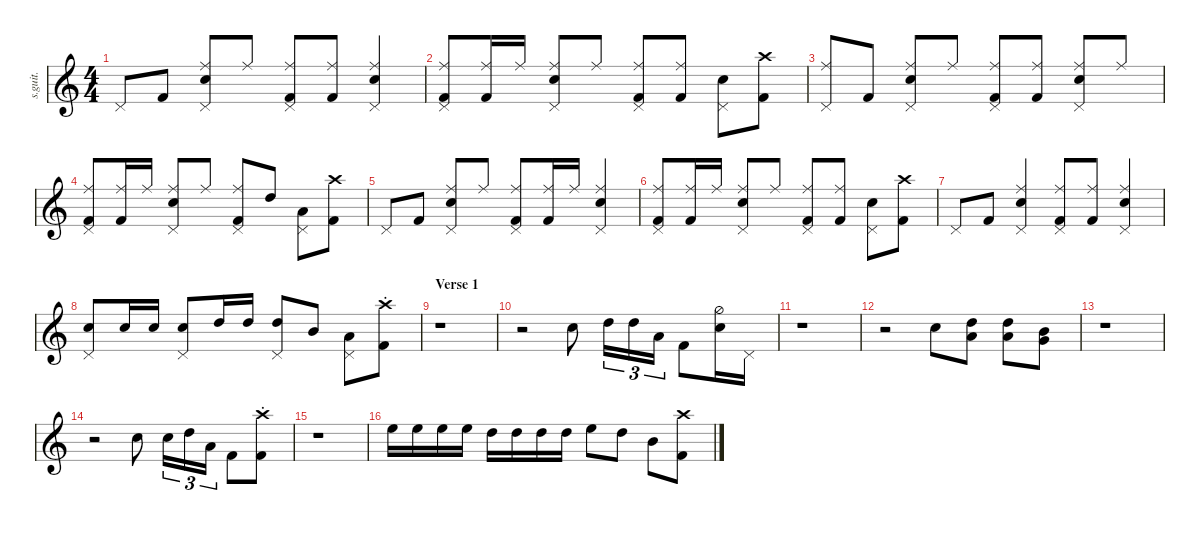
\defaultSystemsLayout 4
\hideDynamics
\bracketExtendMode nobrackets
\track ("Nicko McBrain" "s.guit.") {instrument percussion}
\staff {score}
\articulation defaults
\ts (4 4)
\tempo (162 hide)
\clef g2
\ks c "Pedal Hi-Hat (hit)".8{dy mf} "Kick (hit) 2".8
("Snare (hit) 2" "Ride (middle)" "Pedal Hi-Hat (hit)").8 "Ride (middle)".8 ("Ride (middle)" "Kick (hit) 2" "Pedal Hi-Hat (hit)").8 ("Ride (middle)" "Kick (hit) 2").8 ("Ride (middle)" "Snare (hit) 2" "Pedal Hi-Hat (hit)").4 |
("Ride (middle)" "Kick (hit) 2" "Pedal Hi-Hat (hit)").8 ("Ride (middle)" "Kick (hit) 2").16 "Ride (middle)".16 ("Ride (middle)" "Snare (hit) 2" "Pedal Hi-Hat (hit)").8 "Ride (middle)".8 ("Pedal Hi-Hat (hit)" "Kick (hit) 2" "Ride (middle)").8 ("Kick (hit) 2" "Ride (middle)").8 ("Snare (hit) 2" "Pedal Hi-Hat (hit)").8 ("Crash high (hit)" "Kick (hit) 2").8 |
("Pedal Hi-Hat (hit)" "Ride (middle)").8 "Kick (hit) 2".8 ("Snare (hit) 2" "Ride (middle)" "Pedal Hi-Hat (hit)").8 "Ride (middle)".8 ("Ride (middle)" "Kick (hit) 2" "Pedal Hi-Hat (hit)").8 ("Ride (middle)" "Kick (hit) 2").8 ("Ride (middle)" "Snare (hit) 2" "Pedal Hi-Hat (hit)").8 "Ride (middle)".8 |
("Ride (middle)" "Kick (hit) 2" "Pedal Hi-Hat (hit)").8 ("Ride (middle)" "Kick (hit) 2").16 "Ride (middle)".16 ("Ride (middle)" "Snare (hit) 2" "Pedal Hi-Hat (hit)").8 "Ride (middle)".8 ("Pedal Hi-Hat (hit)" "Kick (hit) 2" "Ride (middle)").8 "High Tom (hit)".8 ("Pedal Hi-Hat (hit)" "Low Tom (hit)").8 ("Crash high (hit)" "Kick (hit) 2").8 |
"Pedal Hi-Hat (hit)".8 "Kick (hit) 2".8 ("Snare (hit) 2" "Ride (middle)" "Pedal Hi-Hat (hit)").8 "Ride (middle)".8 ("Ride (middle)" "Kick (hit) 2" "Pedal Hi-Hat (hit)").8 ("Ride (middle)" "Kick (hit) 2").16 "Ride (middle)".16 ("Ride (middle)" "Snare (hit) 2" "Pedal Hi-Hat (hit)").4 |
("Ride (middle)" "Kick (hit) 2" "Pedal Hi-Hat (hit)").8 ("Ride (middle)" "Kick (hit) 2").16 "Ride (middle)".16 ("Ride (middle)" "Snare (hit) 2" "Pedal Hi-Hat (hit)").8 "Ride (middle)".8 ("Pedal Hi-Hat (hit)" "Kick (hit) 2" "Ride (middle)").8 ("Kick (hit) 2" "Ride (middle)").8 ("Snare (hit) 2" "Pedal Hi-Hat (hit)").8 ("Crash high (hit)" "Kick (hit) 2").8 |
"Pedal Hi-Hat (hit)".8 "Kick (hit) 2".8 ("Snare (hit) 2" "Ride (middle)" "Pedal Hi-Hat (hit)").4 ("Ride (middle)" "Kick (hit) 2" "Pedal Hi-Hat (hit)").8 ("Ride (middle)" "Kick (hit) 2").8 ("Ride (middle)" "Snare (hit) 2" "Pedal Hi-Hat (hit)").4 |
("Pedal Hi-Hat (hit)" "Snare (hit) 2").8 "Snare (hit) 2".16 "Snare (hit) 2".16 ("Snare (hit) 2" "Pedal Hi-Hat (hit)").8 "High Tom (hit)".16 "High Tom (hit)".16 ("Pedal Hi-Hat (hit)" "High Tom (hit)").8 "Mid Tom (hit)".8 ("Low Tom (hit)" "Pedal Hi-Hat (hit)").8 ("Kick (hit) 2" "Crash high (choke)").8{dy f} |
\section ("" "Verse 1")
r.1 |
r.2 "Snare (hit) 2".8 "High Tom (hit)".16{tu (3 2)} "High Tom (hit)".16{tu (3 2)} "Low Tom (hit)".16{tu (3 2)} "Kick (hit) 2".8 ("Hi-Hat (half)" "Snare (hit) 2").16 "Pedal Hi-Hat (hit)".16 |
r.1 |
r.2 "Snare (hit) 2".8 ("Low Tom (hit)" "High Tom (hit)").8 ("Low Tom (hit)" "High Tom (hit)").8 ("Very Low Tom (hit)" "Mid Tom (hit)").8 |
r.1 |
r.2 "Snare (hit) 2".8 "Snare (hit) 2".16{tu (3 2)} "High Tom (hit)".16{tu (3 2)} "Low Tom (hit)".16{tu (3 2)} "Kick (hit) 2".8 ("Kick (hit) 2" "Crash high (choke)").8 |
r.1 |
"High Floor Tom (hit)".16 "High Floor Tom (hit)".16 "High Floor Tom (hit)".16 "High Floor Tom (hit)".16 "High Tom (hit)".16 "High Tom (hit)".16 "High Tom (hit)".16 "High Tom (hit)".16 "High Floor Tom (hit)".8 "High Tom (hit)".8 "Mid Tom (hit)".8 ("Kick (hit) 2" "Crash high (hit)").8
